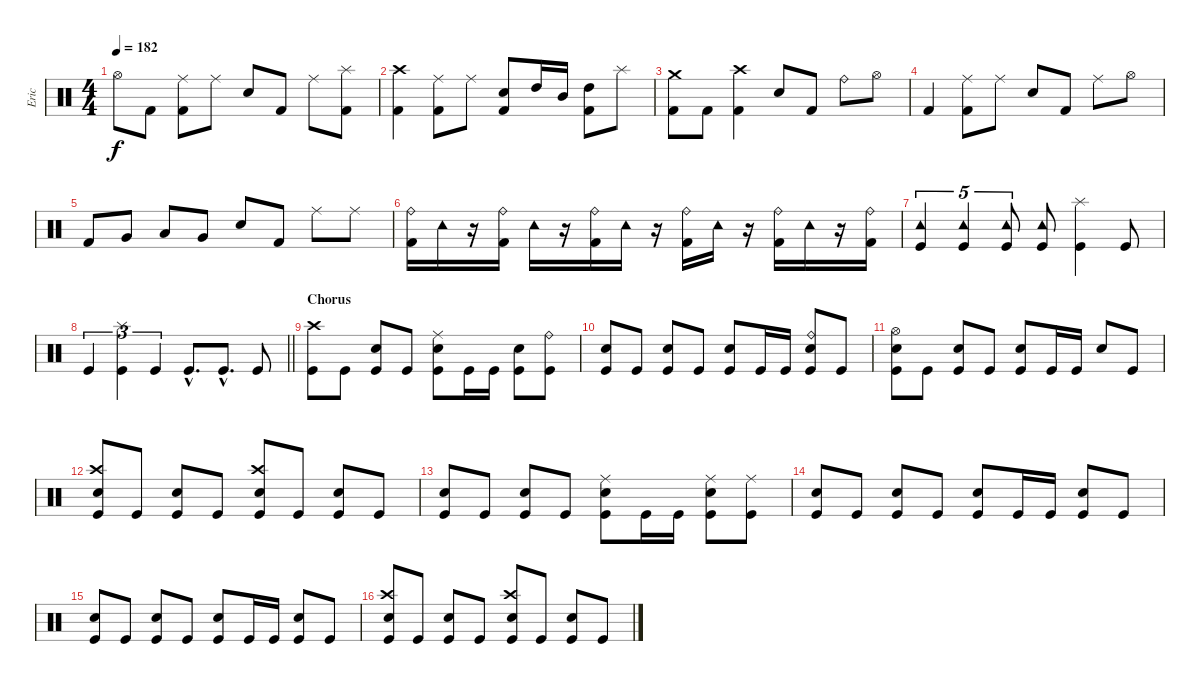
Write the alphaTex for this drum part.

\track ("Eric" "Eric") {instrument percussion}
\staff {score}
\articulation defaults
\ts (4 4)
\tempo 182
\clef neutral
\ks c "Hi-Hat (open)".8{dy f} "Kick (hit) 2".8
("Ride (middle)" "Kick (hit) 2").8 "Ride (middle)".8 "Snare (hit) 2".8 "Kick (hit) 2".8 "Ride (middle)".8 ("Splash (hit)" "Kick (hit) 2").8 |
("Crash high (hit)" "Kick (hit) 2").4 ("Ride (middle)" "Kick (hit) 2").8 "Ride (middle)".8 ("Snare (hit) 2" "Kick (hit) 2").8 "High Tom (hit)".16 "Mid Tom (hit)".16 ("High Tom (hit)" "Kick (hit) 2").8 "Splash (hit)".8 |
("Crash medium (hit)" "Kick (hit) 2").8 "Kick (hit) 2".8 ("Crash high (hit)" "Kick (hit) 2").4 "Snare (hit) 2".8 "Kick (hit) 2".8 "Ride (bell)".8 "Hi-Hat (open)".8 |
"Kick (hit) 2".4 ("Ride (middle)" "Kick (hit) 2").8 "Ride (middle)".8 "Snare (hit) 2".8 "Kick (hit) 2".8 "Ride (middle)".8 "Hi-Hat (open)".8 |
"Kick (hit) 2".8 "Very Low Tom (hit)".8 "Low Tom (hit)".8 "Very Low Tom (hit)".8 "Snare (hit) 2".8 "Kick (hit) 2".8 "Ride (middle)".8 "Ride (middle)".8 |
("Ride (bell)" "Kick (hit) 2").16 "Tambourine (hit)".16 r.16 ("Ride (bell)" "Kick (hit) 2").16 "Tambourine (hit)".16 r.16 ("Ride (bell)" "Kick (hit) 2").16 "Tambourine (hit)".16 r.16 ("Ride (bell)" "Kick (hit) 2").16 "Tambourine (hit)".16 r.16 ("Ride (bell)" "Kick (hit) 2").16 "Tambourine (hit)".16 r.16 ("Ride (bell)" "Kick (hit) 2").16 |
("Tambourine (hit)" "Kick (hit)").4{tu (5 4)} ("Tambourine (hit)" "Kick (hit)").4{tu (5 4)} ("Tambourine (hit)" "Kick (hit)").8{tu (5 4)} ("Tambourine (hit)" "Kick (hit)").8 ("Splash (hit)" "Kick (hit)").4 "Kick (hit)".8 |
\barLineRight lightlight "Kick (hit)".4{tu (3 2)}
("Splash (hit)" "Kick (hit)").4{tu (3 2)} "Kick (hit)".4{tu (3 2)} "Kick (hit)"{hac}.8{d} "Kick (hit)"{hac}.8{d} "Kick (hit)".8 |
\section ("" "Chorus")
("Crash high (hit)" "Kick (hit)").8 "Kick (hit)".8 ("Snare (hit) 2" "Kick (hit)").8 "Kick (hit)".8 ("Ride (middle)" "Snare (hit) 2" "Kick (hit)").8 "Kick (hit)".16 "Kick (hit)".16 ("Snare (hit) 2" "Kick (hit)").8 ("Ride (bell)" "Kick (hit)").8 |
("Snare (hit) 2" "Kick (hit)").8 "Kick (hit)".8 ("Snare (hit) 2" "Kick (hit)").8 "Kick (hit)".8 ("Snare (hit) 2" "Kick (hit)").8 "Kick (hit)".16 "Kick (hit)".16 ("Ride (bell)" "Snare (hit) 2" "Kick (hit)").8 "Kick (hit)".8 |
("Hi-Hat (open)" "Snare (hit) 2" "Kick (hit)").8 "Kick (hit)".8 ("Snare (hit) 2" "Kick (hit)").8 "Kick (hit)".8 ("Snare (hit) 2" "Kick (hit)").8 "Kick (hit)".16 "Kick (hit)".16 "Snare (hit) 2".8 "Kick (hit)".8 |
("Crash high (hit)" "Snare (hit) 2" "Kick (hit)").8 "Kick (hit)".8 ("Snare (hit) 2" "Kick (hit)").8 "Kick (hit)".8 ("Crash high (hit)" "Snare (hit) 2" "Kick (hit)").8 "Kick (hit)".8 ("Snare (hit) 2" "Kick (hit)").8 "Kick (hit)".8 |
("Snare (hit) 2" "Kick (hit)").8 "Kick (hit)".8 ("Snare (hit) 2" "Kick (hit)").8 "Kick (hit)".8 ("Ride (middle)" "Snare (hit) 2" "Kick (hit)").8 "Kick (hit)".16 "Kick (hit)".16 ("Ride (middle)" "Snare (hit) 2" "Kick (hit)").8 ("Ride (middle)" "Kick (hit)").8 |
("Snare (hit) 2" "Kick (hit)").8 "Kick (hit)".8 ("Snare (hit) 2" "Kick (hit)").8 "Kick (hit)".8 ("Snare (hit) 2" "Kick (hit)").8 "Kick (hit)".16 "Kick (hit)".16 ("Snare (hit) 2" "Kick (hit)").8 "Kick (hit)".8 |
("Snare (hit) 2" "Kick (hit)").8 "Kick (hit)".8 ("Snare (hit) 2" "Kick (hit)").8 "Kick (hit)".8 ("Snare (hit) 2" "Kick (hit)").8 "Kick (hit)".16 "Kick (hit)".16 ("Snare (hit) 2" "Kick (hit)").8 "Kick (hit)".8 |
("Crash high (hit)" "Snare (hit) 2" "Kick (hit)").8 "Kick (hit)".8 ("Snare (hit) 2" "Kick (hit)").8 "Kick (hit)".8 ("Crash high (hit)" "Snare (hit) 2" "Kick (hit)").8 "Kick (hit)".8 ("Snare (hit) 2" "Kick (hit)").8 "Kick (hit)".8
